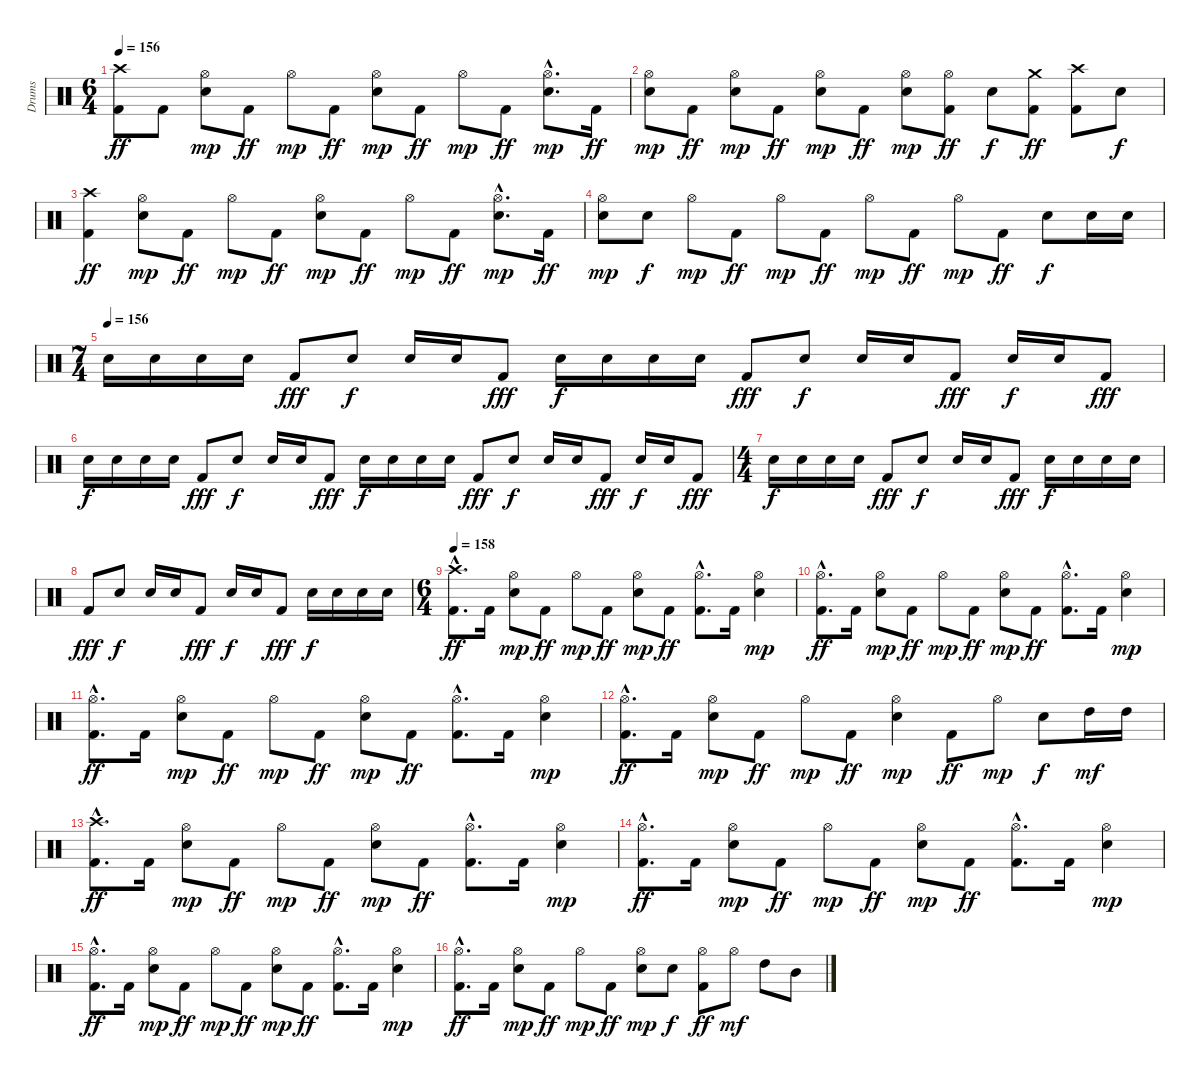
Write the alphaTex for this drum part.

\track ("Drums" "Drums") {instrument percussion}
\staff {score}
\articulation defaults
\ts (6 4)
\tempo 156
\clef neutral
\ks c
("Crash high (hit)" "Kick (hit) 2").8{dy ff} "Kick (hit) 2".8 ("Hi-Hat (open)" "Electric Snare (hit)").8{dy mp} "Kick (hit) 2".8{dy ff} "Hi-Hat (open)".8{dy mp} "Kick (hit) 2".8{dy ff} ("Hi-Hat (open)" "Electric Snare (hit)").8{dy mp} "Kick (hit) 2".8{dy ff} "Hi-Hat (open)".8{dy mp} "Kick (hit) 2".8{dy ff} ("Hi-Hat (open)"{hac} "Electric Snare (hit)"{hac}).8{d dy mp} "Kick (hit) 2".16{dy ff} |
("Hi-Hat (open)" "Electric Snare (hit)").8{dy mp} "Kick (hit) 2".8{dy ff} ("Hi-Hat (open)" "Electric Snare (hit)").8{dy mp} "Kick (hit) 2".8{dy ff} ("Hi-Hat (open)" "Electric Snare (hit)").8{dy mp} "Kick (hit) 2".8{dy ff} ("Hi-Hat (open)" "Electric Snare (hit)").8{dy mp} ("Hi-Hat (open)" "Kick (hit) 2").8{dy ff} "Electric Snare (hit)".8{dy f} ("Crash medium (hit)" "Kick (hit) 2").8{dy ff} ("Crash high (hit)" "Kick (hit) 2").8 "Electric Snare (hit)".8{dy f} |
("Crash high (hit)" "Kick (hit) 2").4{dy ff} ("Hi-Hat (open)" "Electric Snare (hit)").8{dy mp} "Kick (hit) 2".8{dy ff} "Hi-Hat (open)".8{dy mp} "Kick (hit) 2".8{dy ff} ("Hi-Hat (open)" "Electric Snare (hit)").8{dy mp} "Kick (hit) 2".8{dy ff} "Hi-Hat (open)".8{dy mp} "Kick (hit) 2".8{dy ff} ("Hi-Hat (open)"{hac} "Electric Snare (hit)"{hac}).8{d dy mp} "Kick (hit) 2".16{dy ff} |
("Hi-Hat (open)" "Electric Snare (hit)").8{dy mp} "Electric Snare (hit)".8{dy f} "Hi-Hat (open)".8{dy mp} "Kick (hit) 2".8{dy ff} "Hi-Hat (open)".8{dy mp} "Kick (hit) 2".8{dy ff} "Hi-Hat (open)".8{dy mp} "Kick (hit) 2".8{dy ff} "Hi-Hat (open)".8{dy mp} "Kick (hit) 2".8{dy ff} "Electric Snare (hit)".8{dy f} "Electric Snare (hit)".16 "Electric Snare (hit)".16 |
\ts (7 4)
\tempo (156)
"Electric Snare (hit)".16 "Electric Snare (hit)".16 "Electric Snare (hit)".16 "Electric Snare (hit)".16 "Kick (hit) 2".8{dy fff} "Electric Snare (hit)".8{dy f} "Electric Snare (hit)".16 "Electric Snare (hit)".16 "Kick (hit) 2".8{dy fff} "Electric Snare (hit)".16{dy f} "Electric Snare (hit)".16 "Electric Snare (hit)".16 "Electric Snare (hit)".16 "Kick (hit) 2".8{dy fff} "Electric Snare (hit)".8{dy f} "Electric Snare (hit)".16 "Electric Snare (hit)".16 "Kick (hit) 2".8{dy fff} "Electric Snare (hit)".16{dy f} "Electric Snare (hit)".16 "Kick (hit) 2".8{dy fff} |
"Electric Snare (hit)".16{dy f} "Electric Snare (hit)".16 "Electric Snare (hit)".16 "Electric Snare (hit)".16 "Kick (hit) 2".8{dy fff} "Electric Snare (hit)".8{dy f} "Electric Snare (hit)".16 "Electric Snare (hit)".16 "Kick (hit) 2".8{dy fff} "Electric Snare (hit)".16{dy f} "Electric Snare (hit)".16 "Electric Snare (hit)".16 "Electric Snare (hit)".16 "Kick (hit) 2".8{dy fff} "Electric Snare (hit)".8{dy f} "Electric Snare (hit)".16 "Electric Snare (hit)".16 "Kick (hit) 2".8{dy fff} "Electric Snare (hit)".16{dy f} "Electric Snare (hit)".16 "Kick (hit) 2".8{dy fff} |
\ts (4 4)
"Electric Snare (hit)".16{dy f} "Electric Snare (hit)".16 "Electric Snare (hit)".16 "Electric Snare (hit)".16 "Kick (hit) 2".8{dy fff} "Electric Snare (hit)".8{dy f} "Electric Snare (hit)".16 "Electric Snare (hit)".16 "Kick (hit) 2".8{dy fff} "Electric Snare (hit)".16{dy f} "Electric Snare (hit)".16 "Electric Snare (hit)".16 "Electric Snare (hit)".16 |
"Kick (hit) 2".8{dy fff} "Electric Snare (hit)".8{dy f} "Electric Snare (hit)".16 "Electric Snare (hit)".16 "Kick (hit) 2".8{dy fff} "Electric Snare (hit)".16{dy f} "Electric Snare (hit)".16 "Kick (hit) 2".8{dy fff} "Electric Snare (hit)".16{dy f} "Electric Snare (hit)".16 "Electric Snare (hit)".16 "Electric Snare (hit)".16 |
\ts (6 4)
\tempo 158
("Crash high (hit)"{hac} "Kick (hit) 2"{hac}).8{d dy ff} "Kick (hit) 2".16 ("Hi-Hat (open)" "Electric Snare (hit)").8{dy mp} "Kick (hit) 2".8{dy ff} "Hi-Hat (open)".8{dy mp} "Kick (hit) 2".8{dy ff} ("Hi-Hat (open)" "Electric Snare (hit)").8{dy mp} "Kick (hit) 2".8{dy ff} ("Hi-Hat (open)"{hac} "Kick (hit) 2"{hac}).8{d} "Kick (hit) 2".16 ("Hi-Hat (open)" "Electric Snare (hit)").4{dy mp} |
("Hi-Hat (open)"{hac} "Kick (hit) 2"{hac}).8{d dy ff} "Kick (hit) 2".16 ("Hi-Hat (open)" "Electric Snare (hit)").8{dy mp} "Kick (hit) 2".8{dy ff} "Hi-Hat (open)".8{dy mp} "Kick (hit) 2".8{dy ff} ("Hi-Hat (open)" "Electric Snare (hit)").8{dy mp} "Kick (hit) 2".8{dy ff} ("Hi-Hat (open)"{hac} "Kick (hit) 2"{hac}).8{d} "Kick (hit) 2".16 ("Hi-Hat (open)" "Electric Snare (hit)").4{dy mp} |
("Hi-Hat (open)"{hac} "Kick (hit) 2"{hac}).8{d dy ff} "Kick (hit) 2".16 ("Hi-Hat (open)" "Electric Snare (hit)").8{dy mp} "Kick (hit) 2".8{dy ff} "Hi-Hat (open)".8{dy mp} "Kick (hit) 2".8{dy ff} ("Hi-Hat (open)" "Electric Snare (hit)").8{dy mp} "Kick (hit) 2".8{dy ff} ("Hi-Hat (open)"{hac} "Kick (hit) 2"{hac}).8{d} "Kick (hit) 2".16 ("Hi-Hat (open)" "Electric Snare (hit)").4{dy mp} |
("Hi-Hat (open)"{hac} "Kick (hit) 2"{hac}).8{d dy ff} "Kick (hit) 2".16 ("Hi-Hat (open)" "Electric Snare (hit)").8{dy mp} "Kick (hit) 2".8{dy ff} "Hi-Hat (open)".8{dy mp} "Kick (hit) 2".8{dy ff} ("Hi-Hat (open)" "Electric Snare (hit)").4{dy mp} "Kick (hit) 2".8{dy ff} "Hi-Hat (open)".8{dy mp} "Electric Snare (hit)".8{dy f} "High Tom (hit)".16{dy mf} "High Tom (hit)".16 |
("Crash high (hit)"{hac} "Kick (hit) 2"{hac}).8{d dy ff} "Kick (hit) 2".16 ("Hi-Hat (open)" "Electric Snare (hit)").8{dy mp} "Kick (hit) 2".8{dy ff} "Hi-Hat (open)".8{dy mp} "Kick (hit) 2".8{dy ff} ("Hi-Hat (open)" "Electric Snare (hit)").8{dy mp} "Kick (hit) 2".8{dy ff} ("Hi-Hat (open)"{hac} "Kick (hit) 2"{hac}).8{d} "Kick (hit) 2".16 ("Hi-Hat (open)" "Electric Snare (hit)").4{dy mp} |
("Hi-Hat (open)"{hac} "Kick (hit) 2"{hac}).8{d dy ff} "Kick (hit) 2".16 ("Hi-Hat (open)" "Electric Snare (hit)").8{dy mp} "Kick (hit) 2".8{dy ff} "Hi-Hat (open)".8{dy mp} "Kick (hit) 2".8{dy ff} ("Hi-Hat (open)" "Electric Snare (hit)").8{dy mp} "Kick (hit) 2".8{dy ff} ("Hi-Hat (open)"{hac} "Kick (hit) 2"{hac}).8{d} "Kick (hit) 2".16 ("Hi-Hat (open)" "Electric Snare (hit)").4{dy mp} |
("Hi-Hat (open)"{hac} "Kick (hit) 2"{hac}).8{d dy ff} "Kick (hit) 2".16 ("Hi-Hat (open)" "Electric Snare (hit)").8{dy mp} "Kick (hit) 2".8{dy ff} "Hi-Hat (open)".8{dy mp} "Kick (hit) 2".8{dy ff} ("Hi-Hat (open)" "Electric Snare (hit)").8{dy mp} "Kick (hit) 2".8{dy ff} ("Hi-Hat (open)"{hac} "Kick (hit) 2"{hac}).8{d} "Kick (hit) 2".16 ("Hi-Hat (open)" "Electric Snare (hit)").4{dy mp} |
("Hi-Hat (open)"{hac} "Kick (hit) 2"{hac}).8{d dy ff} "Kick (hit) 2".16 ("Hi-Hat (open)" "Electric Snare (hit)").8{dy mp} "Kick (hit) 2".8{dy ff} "Hi-Hat (open)".8{dy mp} "Kick (hit) 2".8{dy ff} ("Hi-Hat (open)" "Electric Snare (hit)").8{dy mp} "Electric Snare (hit)".8{dy f} ("Hi-Hat (open)" "Kick (hit) 2").8{dy ff} "Hi-Hat (open)".8{dy mf} "High Tom (hit)".8 "Mid Tom (hit)".8
